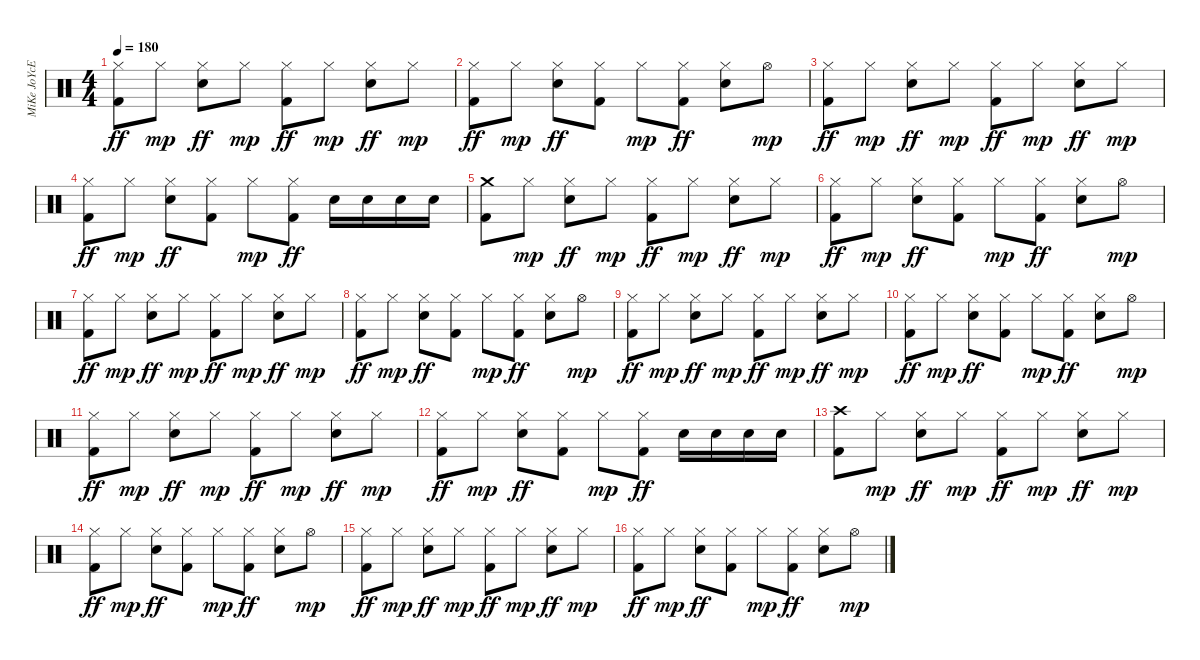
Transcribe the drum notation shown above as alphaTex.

\track ("MiKe JoYcE" "MiKe JoYcE") {instrument percussion}
\staff {score}
\articulation defaults
\ts (4 4)
\tempo 180
\clef neutral
\ks c
("Hi-Hat (closed)" "Kick (hit) 2").8{dy ff} "Hi-Hat (closed)".8{dy mp} ("Hi-Hat (closed)" "Electric Snare (hit)").8{dy ff} "Hi-Hat (closed)".8{dy mp} ("Hi-Hat (closed)" "Kick (hit) 2").8{dy ff} "Hi-Hat (closed)".8{dy mp} ("Hi-Hat (closed)" "Electric Snare (hit)").8{dy ff} "Hi-Hat (closed)".8{dy mp} |
("Hi-Hat (closed)" "Kick (hit) 2").8{dy ff} "Hi-Hat (closed)".8{dy mp} ("Hi-Hat (closed)" "Electric Snare (hit)").8{dy ff} ("Hi-Hat (closed)" "Kick (hit) 2").8 "Hi-Hat (closed)".8{dy mp} ("Hi-Hat (closed)" "Kick (hit) 2").8{dy ff} ("Hi-Hat (closed)" "Electric Snare (hit)").8 "Hi-Hat (open)".8{dy mp} |
("Hi-Hat (closed)" "Kick (hit) 2").8{dy ff} "Hi-Hat (closed)".8{dy mp} ("Hi-Hat (closed)" "Electric Snare (hit)").8{dy ff} "Hi-Hat (closed)".8{dy mp} ("Hi-Hat (closed)" "Kick (hit) 2").8{dy ff} "Hi-Hat (closed)".8{dy mp} ("Hi-Hat (closed)" "Electric Snare (hit)").8{dy ff} "Hi-Hat (closed)".8{dy mp} |
("Hi-Hat (closed)" "Kick (hit) 2").8{dy ff} "Hi-Hat (closed)".8{dy mp} ("Hi-Hat (closed)" "Electric Snare (hit)").8{dy ff} ("Hi-Hat (closed)" "Kick (hit) 2").8 "Hi-Hat (closed)".8{dy mp} ("Hi-Hat (closed)" "Kick (hit) 2").8{dy ff} "Electric Snare (hit)".16 "Electric Snare (hit)".16 "Electric Snare (hit)".16 "Electric Snare (hit)".16 |
("Crash medium (hit)" "Kick (hit) 2").8 "Hi-Hat (closed)".8{dy mp} ("Hi-Hat (closed)" "Electric Snare (hit)").8{dy ff} "Hi-Hat (closed)".8{dy mp} ("Hi-Hat (closed)" "Kick (hit) 2").8{dy ff} "Hi-Hat (closed)".8{dy mp} ("Hi-Hat (closed)" "Electric Snare (hit)").8{dy ff} "Hi-Hat (closed)".8{dy mp} |
("Hi-Hat (closed)" "Kick (hit) 2").8{dy ff} "Hi-Hat (closed)".8{dy mp} ("Hi-Hat (closed)" "Electric Snare (hit)").8{dy ff} ("Hi-Hat (closed)" "Kick (hit) 2").8 "Hi-Hat (closed)".8{dy mp} ("Hi-Hat (closed)" "Kick (hit) 2").8{dy ff} ("Hi-Hat (closed)" "Electric Snare (hit)").8 "Hi-Hat (open)".8{dy mp} |
("Hi-Hat (closed)" "Kick (hit) 2").8{dy ff} "Hi-Hat (closed)".8{dy mp} ("Hi-Hat (closed)" "Electric Snare (hit)").8{dy ff} "Hi-Hat (closed)".8{dy mp} ("Hi-Hat (closed)" "Kick (hit) 2").8{dy ff} "Hi-Hat (closed)".8{dy mp} ("Hi-Hat (closed)" "Electric Snare (hit)").8{dy ff} "Hi-Hat (closed)".8{dy mp} |
("Hi-Hat (closed)" "Kick (hit) 2").8{dy ff} "Hi-Hat (closed)".8{dy mp} ("Hi-Hat (closed)" "Electric Snare (hit)").8{dy ff} ("Hi-Hat (closed)" "Kick (hit) 2").8 "Hi-Hat (closed)".8{dy mp} ("Hi-Hat (closed)" "Kick (hit) 2").8{dy ff} ("Hi-Hat (closed)" "Electric Snare (hit)").8 "Hi-Hat (open)".8{dy mp} |
("Hi-Hat (closed)" "Kick (hit) 2").8{dy ff} "Hi-Hat (closed)".8{dy mp} ("Hi-Hat (closed)" "Electric Snare (hit)").8{dy ff} "Hi-Hat (closed)".8{dy mp} ("Hi-Hat (closed)" "Kick (hit) 2").8{dy ff} "Hi-Hat (closed)".8{dy mp} ("Hi-Hat (closed)" "Electric Snare (hit)").8{dy ff} "Hi-Hat (closed)".8{dy mp} |
("Hi-Hat (closed)" "Kick (hit) 2").8{dy ff} "Hi-Hat (closed)".8{dy mp} ("Hi-Hat (closed)" "Electric Snare (hit)").8{dy ff} ("Hi-Hat (closed)" "Kick (hit) 2").8 "Hi-Hat (closed)".8{dy mp} ("Hi-Hat (closed)" "Kick (hit) 2").8{dy ff} ("Hi-Hat (closed)" "Electric Snare (hit)").8 "Hi-Hat (open)".8{dy mp} |
("Hi-Hat (closed)" "Kick (hit) 2").8{dy ff} "Hi-Hat (closed)".8{dy mp} ("Hi-Hat (closed)" "Electric Snare (hit)").8{dy ff} "Hi-Hat (closed)".8{dy mp} ("Hi-Hat (closed)" "Kick (hit) 2").8{dy ff} "Hi-Hat (closed)".8{dy mp} ("Hi-Hat (closed)" "Electric Snare (hit)").8{dy ff} "Hi-Hat (closed)".8{dy mp} |
("Hi-Hat (closed)" "Kick (hit) 2").8{dy ff} "Hi-Hat (closed)".8{dy mp} ("Hi-Hat (closed)" "Electric Snare (hit)").8{dy ff} ("Hi-Hat (closed)" "Kick (hit) 2").8 "Hi-Hat (closed)".8{dy mp} ("Hi-Hat (closed)" "Kick (hit) 2").8{dy ff} "Electric Snare (hit)".16 "Electric Snare (hit)".16 "Electric Snare (hit)".16 "Electric Snare (hit)".16 |
("Crash high (hit)" "Kick (hit) 2").8 "Hi-Hat (closed)".8{dy mp} ("Hi-Hat (closed)" "Electric Snare (hit)").8{dy ff} "Hi-Hat (closed)".8{dy mp} ("Hi-Hat (closed)" "Kick (hit) 2").8{dy ff} "Hi-Hat (closed)".8{dy mp} ("Hi-Hat (closed)" "Electric Snare (hit)").8{dy ff} "Hi-Hat (closed)".8{dy mp} |
("Hi-Hat (closed)" "Kick (hit) 2").8{dy ff} "Hi-Hat (closed)".8{dy mp} ("Hi-Hat (closed)" "Electric Snare (hit)").8{dy ff} ("Hi-Hat (closed)" "Kick (hit) 2").8 "Hi-Hat (closed)".8{dy mp} ("Hi-Hat (closed)" "Kick (hit) 2").8{dy ff} ("Hi-Hat (closed)" "Electric Snare (hit)").8 "Hi-Hat (open)".8{dy mp} |
("Hi-Hat (closed)" "Kick (hit) 2").8{dy ff} "Hi-Hat (closed)".8{dy mp} ("Hi-Hat (closed)" "Electric Snare (hit)").8{dy ff} "Hi-Hat (closed)".8{dy mp} ("Hi-Hat (closed)" "Kick (hit) 2").8{dy ff} "Hi-Hat (closed)".8{dy mp} ("Hi-Hat (closed)" "Electric Snare (hit)").8{dy ff} "Hi-Hat (closed)".8{dy mp} |
("Hi-Hat (closed)" "Kick (hit) 2").8{dy ff} "Hi-Hat (closed)".8{dy mp} ("Hi-Hat (closed)" "Electric Snare (hit)").8{dy ff} ("Hi-Hat (closed)" "Kick (hit) 2").8 "Hi-Hat (closed)".8{dy mp} ("Hi-Hat (closed)" "Kick (hit) 2").8{dy ff} ("Hi-Hat (closed)" "Electric Snare (hit)").8 "Hi-Hat (open)".8{dy mp}
